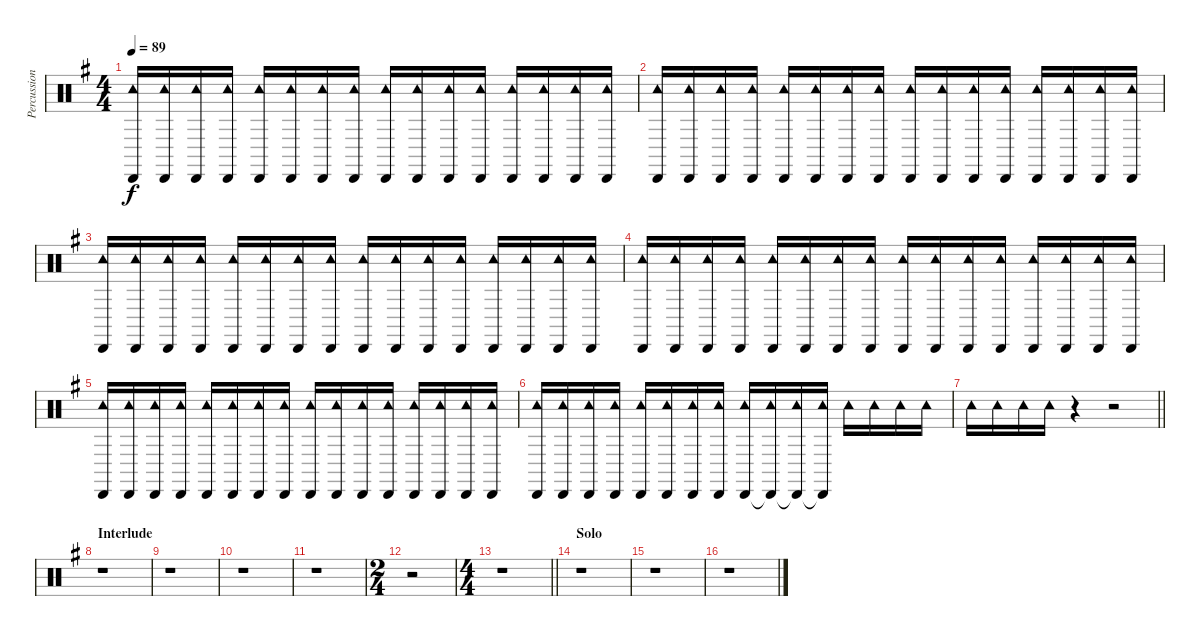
\track ("Percussion" "Percussion") {instrument percussion}
\staff {score}
\articulation defaults
\ts (4 4)
\tempo 89
\clef neutral
\ks g
("Tambourine (hit)" "Cabasa (hit)").16{dy f} ("Tambourine (hit)" "Cabasa (hit)").16 ("Tambourine (hit)" "Cabasa (hit)").16 ("Tambourine (hit)" "Cabasa (hit)").16 ("Tambourine (hit)" "Cabasa (hit)").16 ("Tambourine (hit)" "Cabasa (hit)").16 ("Tambourine (hit)" "Cabasa (hit)").16 ("Tambourine (hit)" "Cabasa (hit)").16 ("Tambourine (hit)" "Cabasa (hit)").16 ("Tambourine (hit)" "Cabasa (hit)").16 ("Tambourine (hit)" "Cabasa (hit)").16 ("Tambourine (hit)" "Cabasa (hit)").16 ("Tambourine (hit)" "Cabasa (hit)").16 ("Tambourine (hit)" "Cabasa (hit)").16 ("Tambourine (hit)" "Cabasa (hit)").16 ("Tambourine (hit)" "Cabasa (hit)").16 |
("Tambourine (hit)" "Cabasa (hit)").16 ("Tambourine (hit)" "Cabasa (hit)").16 ("Tambourine (hit)" "Cabasa (hit)").16 ("Tambourine (hit)" "Cabasa (hit)").16 ("Tambourine (hit)" "Cabasa (hit)").16 ("Tambourine (hit)" "Cabasa (hit)").16 ("Tambourine (hit)" "Cabasa (hit)").16 ("Tambourine (hit)" "Cabasa (hit)").16 ("Tambourine (hit)" "Cabasa (hit)").16 ("Tambourine (hit)" "Cabasa (hit)").16 ("Tambourine (hit)" "Cabasa (hit)").16 ("Tambourine (hit)" "Cabasa (hit)").16 ("Tambourine (hit)" "Cabasa (hit)").16 ("Tambourine (hit)" "Cabasa (hit)").16 ("Tambourine (hit)" "Cabasa (hit)").16 ("Tambourine (hit)" "Cabasa (hit)").16 |
("Tambourine (hit)" "Cabasa (hit)").16 ("Tambourine (hit)" "Cabasa (hit)").16 ("Tambourine (hit)" "Cabasa (hit)").16 ("Tambourine (hit)" "Cabasa (hit)").16 ("Tambourine (hit)" "Cabasa (hit)").16 ("Tambourine (hit)" "Cabasa (hit)").16 ("Tambourine (hit)" "Cabasa (hit)").16 ("Tambourine (hit)" "Cabasa (hit)").16 ("Tambourine (hit)" "Cabasa (hit)").16 ("Tambourine (hit)" "Cabasa (hit)").16 ("Tambourine (hit)" "Cabasa (hit)").16 ("Tambourine (hit)" "Cabasa (hit)").16 ("Tambourine (hit)" "Cabasa (hit)").16 ("Tambourine (hit)" "Cabasa (hit)").16 ("Tambourine (hit)" "Cabasa (hit)").16 ("Tambourine (hit)" "Cabasa (hit)").16 |
("Tambourine (hit)" "Cabasa (hit)").16 ("Tambourine (hit)" "Cabasa (hit)").16 ("Tambourine (hit)" "Cabasa (hit)").16 ("Tambourine (hit)" "Cabasa (hit)").16 ("Tambourine (hit)" "Cabasa (hit)").16 ("Tambourine (hit)" "Cabasa (hit)").16 ("Tambourine (hit)" "Cabasa (hit)").16 ("Tambourine (hit)" "Cabasa (hit)").16 ("Tambourine (hit)" "Cabasa (hit)").16 ("Tambourine (hit)" "Cabasa (hit)").16 ("Tambourine (hit)" "Cabasa (hit)").16 ("Tambourine (hit)" "Cabasa (hit)").16 ("Tambourine (hit)" "Cabasa (hit)").16 ("Tambourine (hit)" "Cabasa (hit)").16 ("Tambourine (hit)" "Cabasa (hit)").16 ("Tambourine (hit)" "Cabasa (hit)").16 |
("Tambourine (hit)" "Cabasa (hit)").16 ("Tambourine (hit)" "Cabasa (hit)").16 ("Tambourine (hit)" "Cabasa (hit)").16 ("Tambourine (hit)" "Cabasa (hit)").16 ("Tambourine (hit)" "Cabasa (hit)").16 ("Tambourine (hit)" "Cabasa (hit)").16 ("Tambourine (hit)" "Cabasa (hit)").16 ("Tambourine (hit)" "Cabasa (hit)").16 ("Tambourine (hit)" "Cabasa (hit)").16 ("Tambourine (hit)" "Cabasa (hit)").16 ("Tambourine (hit)" "Cabasa (hit)").16 ("Tambourine (hit)" "Cabasa (hit)").16 ("Tambourine (hit)" "Cabasa (hit)").16 ("Tambourine (hit)" "Cabasa (hit)").16 ("Tambourine (hit)" "Cabasa (hit)").16 ("Tambourine (hit)" "Cabasa (hit)").16 |
("Tambourine (hit)" "Cabasa (hit)").16 ("Tambourine (hit)" "Cabasa (hit)").16 ("Tambourine (hit)" "Cabasa (hit)").16 ("Tambourine (hit)" "Cabasa (hit)").16 ("Tambourine (hit)" "Cabasa (hit)").16 ("Tambourine (hit)" "Cabasa (hit)").16 ("Tambourine (hit)" "Cabasa (hit)").16 ("Tambourine (hit)" "Cabasa (hit)").16 ("Tambourine (hit)" "Cabasa (hit)").16 ("Tambourine (hit)" "Cabasa (hit)"{t}).16 ("Tambourine (hit)" "Cabasa (hit)"{t}).16 ("Tambourine (hit)" "Cabasa (hit)"{t}).16 "Tambourine (hit)".16 "Tambourine (hit)".16 "Tambourine (hit)".16 "Tambourine (hit)".16 |
\barLineRight lightlight "Tambourine (hit)".16 "Tambourine (hit)".16 "Tambourine (hit)".16 "Tambourine (hit)".16
r.4 r.2 |
\section ("" "Interlude")
r.1 |
r.1 |
r.1 |
r.1 |
\ts (2 4)
r.2 |
\ts (4 4)
\barLineRight lightlight
r.1 |
\section ("" "Solo")
r.1 |
r.1 |
r.1
